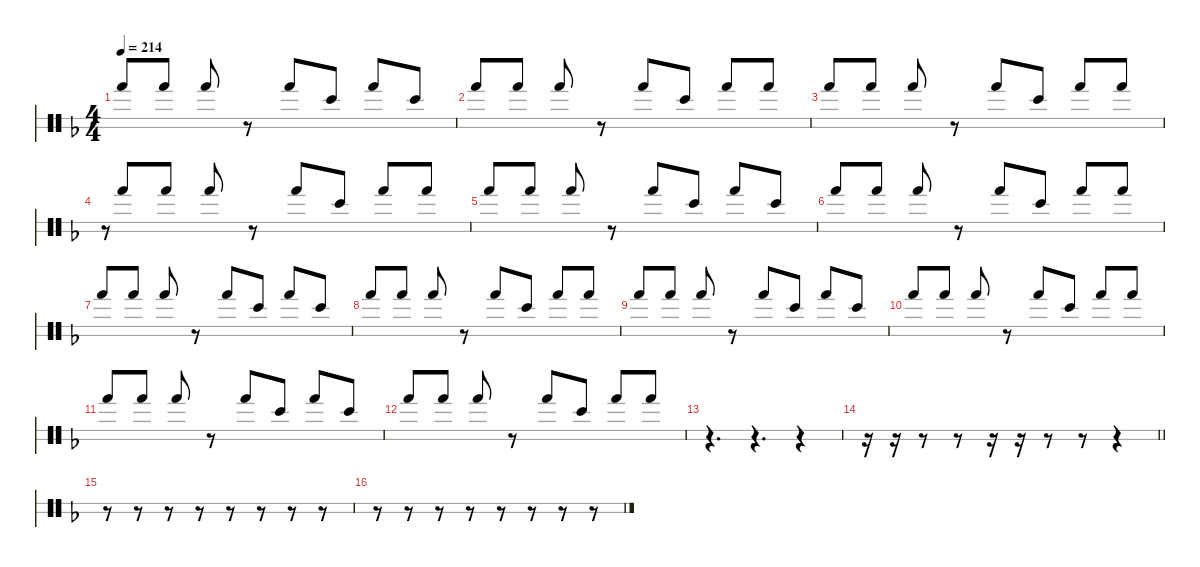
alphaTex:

\hideDynamics
\bracketExtendMode nobrackets
\singleTrackTrackNamePolicy hidden
\multiTrackTrackNamePolicy hidden
\firstSystemTrackNameMode fullname
\firstSystemTrackNameOrientation horizontal
\otherSystemsTrackNameOrientation horizontal
\track ("Bongos" "bngKit") {instrument percussion}
\staff {score 2}
\articulation defaults
\ts (4 4)
\tempo 214
\clef neutral
\ks dminor "Hand (hit)"{acc forcenatural}.8{dy p beam Up} "Hand (hit)"{acc forcenatural}.8{beam Up} "Hand (hit)"{acc forcenatural}.8{dy mp beam Up}
r.8{beam Up} "Hand (hit)"{acc forcenatural}.8{beam Up} "Bongo High (hit)"{acc forcenatural}.8{beam Up} "Hand (hit)"{acc forcenatural}.8{beam Up} "Bongo High (hit)"{acc forcenatural}.8{dy p beam Up} |
"Hand (hit)"{acc forcenatural}.8{dy mp beam Up} "Hand (hit)"{acc forcenatural}.8{dy p beam Up} "Hand (hit)"{acc forcenatural}.8{dy mp beam Up} r.8{beam Up} "Hand (hit)"{acc forcenatural}.8{beam Up} "Bongo High (hit)"{acc forcenatural}.8{beam Up} "Hand (hit)"{acc forcenatural}.8{dy p beam Up} "Hand (hit)"{acc forcenatural}.8{beam Up} |
"Hand (hit)"{acc forcenatural}.8{beam Up} "Hand (hit)"{acc forcenatural}.8{beam Up} "Hand (hit)"{acc forcenatural}.8{dy mp beam Up} r.8{beam Up} "Hand (hit)"{acc forcenatural}.8{beam Up} "Bongo High (hit)"{acc forcenatural}.8{beam Up} "Hand (hit)"{acc forcenatural}.8{beam Up} "Hand (hit)"{acc forcenatural}.8{dy p beam Up} |
r.8{gr beam Up} "Hand (hit)"{acc forcenatural}.8{beam Up} "Hand (hit)"{acc forcenatural}.8{beam Up} "Hand (hit)"{acc forcenatural}.8{dy mp beam Up} r.8{beam Up} "Hand (hit)"{acc forcenatural}.8{beam Up} "Bongo High (hit)"{acc forcenatural}.8{beam Up} "Hand (hit)"{acc forcenatural}.8{beam Up} "Hand (hit)"{acc forcenatural}.8{dy p beam Up} |
"Hand (hit)"{acc forcenatural}.8{beam Up} "Hand (hit)"{acc forcenatural}.8{beam Up} "Hand (hit)"{acc forcenatural}.8{dy mp beam Up} r.8{beam Up} "Hand (hit)"{acc forcenatural}.8{beam Up} "Bongo High (hit)"{acc forcenatural}.8{beam Up} "Hand (hit)"{acc forcenatural}.8{beam Up} "Bongo High (hit)"{acc forcenatural}.8{dy p beam Up} |
"Hand (hit)"{acc forcenatural}.8{dy mp beam Up} "Hand (hit)"{acc forcenatural}.8{dy p beam Up} "Hand (hit)"{acc forcenatural}.8{dy mp beam Up} r.8{beam Up} "Hand (hit)"{acc forcenatural}.8{beam Up} "Bongo High (hit)"{acc forcenatural}.8{beam Up} "Hand (hit)"{acc forcenatural}.8{dy p beam Up} "Hand (hit)"{acc forcenatural}.8{beam Up} |
"Hand (hit)"{acc forcenatural}.8{beam Up} "Hand (hit)"{acc forcenatural}.8{beam Up} "Hand (hit)"{acc forcenatural}.8{dy mp beam Up} r.8{beam Up} "Hand (hit)"{acc forcenatural}.8{beam Up} "Bongo High (hit)"{acc forcenatural}.8{beam Up} "Hand (hit)"{acc forcenatural}.8{beam Up} "Bongo High (hit)"{acc forcenatural}.8{dy p beam Up} |
"Hand (hit)"{acc forcenatural}.8{dy mp beam Up} "Hand (hit)"{acc forcenatural}.8{dy p beam Up} "Hand (hit)"{acc forcenatural}.8{dy mp beam Up} r.8{beam Up} "Hand (hit)"{acc forcenatural}.8{beam Up} "Bongo High (hit)"{acc forcenatural}.8{beam Up} "Hand (hit)"{acc forcenatural}.8{dy p beam Up} "Hand (hit)"{acc forcenatural}.8{beam Up} |
"Hand (hit)"{acc forcenatural}.8{beam Up} "Hand (hit)"{acc forcenatural}.8{beam Up} "Hand (hit)"{acc forcenatural}.8{dy mp beam Up} r.8{beam Up} "Hand (hit)"{acc forcenatural}.8{beam Up} "Bongo High (hit)"{acc forcenatural}.8{beam Up} "Hand (hit)"{acc forcenatural}.8{beam Up} "Bongo High (hit)"{acc forcenatural}.8{dy p beam Up} |
"Hand (hit)"{acc forcenatural}.8{dy mp beam Up} "Hand (hit)"{acc forcenatural}.8{dy p beam Up} "Hand (hit)"{acc forcenatural}.8{dy mp beam Up} r.8{beam Up} "Hand (hit)"{acc forcenatural}.8{beam Up} "Bongo High (hit)"{acc forcenatural}.8{beam Up} "Hand (hit)"{acc forcenatural}.8{dy p beam Up} "Hand (hit)"{acc forcenatural}.8{beam Up} |
"Hand (hit)"{acc forcenatural}.8{beam Up} "Hand (hit)"{acc forcenatural}.8{beam Up} "Hand (hit)"{acc forcenatural}.8{dy mp beam Up} r.8{beam Up} "Hand (hit)"{acc forcenatural}.8{beam Up} "Bongo High (hit)"{acc forcenatural}.8{beam Up} "Hand (hit)"{acc forcenatural}.8{beam Up} "Bongo High (hit)"{acc forcenatural}.8{dy p beam Up} |
"Hand (hit)"{acc forcenatural}.8{dy mp beam Up} "Hand (hit)"{acc forcenatural}.8{dy p beam Up} "Hand (hit)"{acc forcenatural}.8{dy mp beam Up} r.8{beam Up} "Hand (hit)"{acc forcenatural}.8{beam Up} "Bongo High (hit)"{acc forcenatural}.8{beam Up} "Hand (hit)"{acc forcenatural}.8{dy p beam Up} "Hand (hit)"{acc forcenatural}.8{beam Up} |
r.4{d beam Down} r.4{d beam Down} r.4{beam Down} |
\barLineRight lightlight
r.16{beam Down} r.16{beam Down} r.8{beam Down} r.8{beam Down} r.16{beam Down} r.16{beam Down} r.8{beam Down} r.8{beam Down} r.4{beam Down} |
r.8{beam Down} r.8{beam Down} r.8{beam Down} r.8{beam Down} r.8{beam Down} r.8{beam Down} r.8{beam Down} r.8{beam Down} |
r.8{beam Down} r.8{beam Down} r.8{beam Down} r.8{beam Down} r.8{beam Down} r.8{beam Down} r.8{beam Down} r.8{beam Down}
